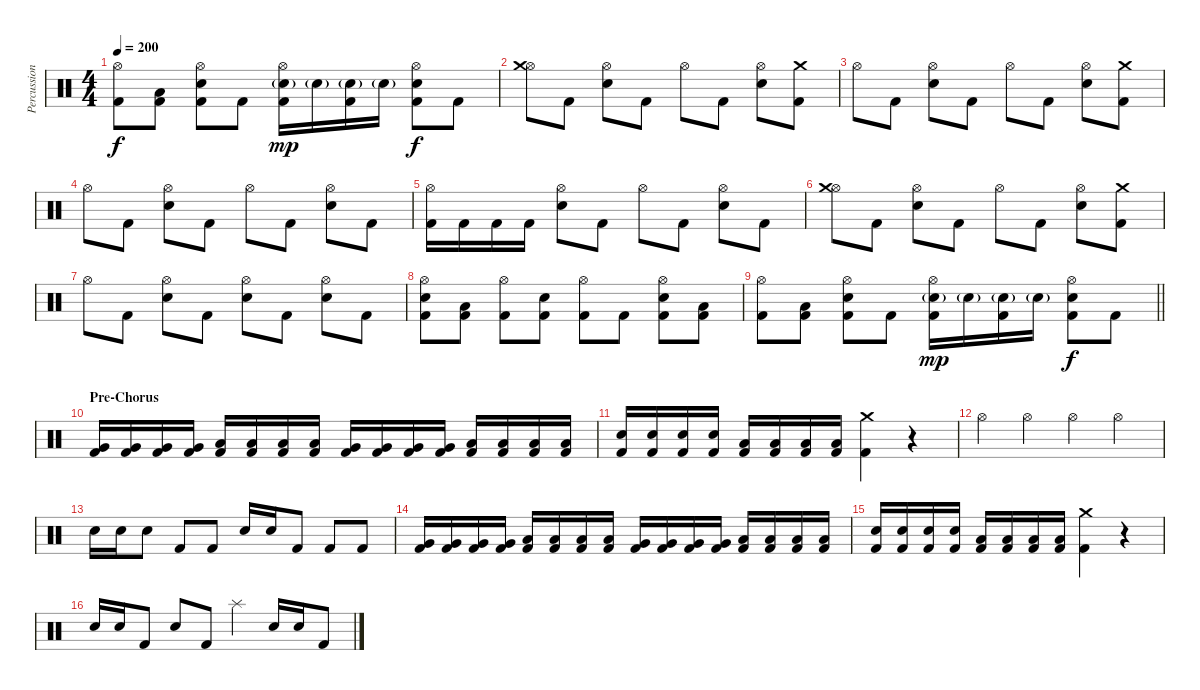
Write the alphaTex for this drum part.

\track ("Percussions" "Percussion") {instrument percussion}
\staff {score}
\articulation defaults
\ts (4 4)
\tempo 200
\clef neutral
\ks c
("Hi-Hat (open)" "Kick (hit) 2").8{dy f} ("Low Tom (hit)" "Kick (hit) 2").8 ("Hi-Hat (open)" "Electric Snare (hit)" "Kick (hit) 2").8 "Kick (hit) 2".8 ("Hi-Hat (open)" "Electric Snare (hit)"{g} "Kick (hit) 2").16{dy mp} "Electric Snare (hit)"{g}.16 ("Electric Snare (hit)"{g} "Kick (hit) 2").16 "Electric Snare (hit)"{g}.16 ("Hi-Hat (open)" "Electric Snare (hit)" "Kick (hit) 2").8{dy f} "Kick (hit) 2".8 |
("Hi-Hat (open)" "Crash medium (hit)").8 "Kick (hit) 2".8 ("Hi-Hat (open)" "Electric Snare (hit)").8 "Kick (hit) 2".8 "Hi-Hat (open)".8 "Kick (hit) 2".8 ("Hi-Hat (open)" "Electric Snare (hit)").8 ("Crash medium (hit)" "Kick (hit) 2").8 |
"Hi-Hat (open)".8 "Kick (hit) 2".8 ("Hi-Hat (open)" "Electric Snare (hit)").8 "Kick (hit) 2".8 "Hi-Hat (open)".8 "Kick (hit) 2".8 ("Hi-Hat (open)" "Electric Snare (hit)").8 ("Crash medium (hit)" "Kick (hit) 2").8 |
"Hi-Hat (open)".8 "Kick (hit) 2".8 ("Hi-Hat (open)" "Electric Snare (hit)").8 "Kick (hit) 2".8 "Hi-Hat (open)".8 "Kick (hit) 2".8 ("Hi-Hat (open)" "Electric Snare (hit)").8 "Kick (hit) 2".8 |
("Hi-Hat (open)" "Kick (hit) 2").16 "Kick (hit) 2".16 "Kick (hit) 2".16 "Kick (hit) 2".16 ("Hi-Hat (open)" "Electric Snare (hit)").8 "Kick (hit) 2".8 "Hi-Hat (open)".8 "Kick (hit) 2".8 ("Hi-Hat (open)" "Electric Snare (hit)").8 "Kick (hit) 2".8 |
("Hi-Hat (open)" "Crash medium (hit)").8 "Kick (hit) 2".8 ("Hi-Hat (open)" "Electric Snare (hit)").8 "Kick (hit) 2".8 "Hi-Hat (open)".8 "Kick (hit) 2".8 ("Hi-Hat (open)" "Electric Snare (hit)").8 ("Crash medium (hit)" "Kick (hit) 2").8 |
"Hi-Hat (open)".8 "Kick (hit) 2".8 ("Hi-Hat (open)" "Electric Snare (hit)").8 "Kick (hit) 2".8 ("Hi-Hat (open)" "Electric Snare (hit)").8 "Kick (hit) 2".8 ("Hi-Hat (open)" "Electric Snare (hit)").8 "Kick (hit) 2".8 |
("Hi-Hat (open)" "Electric Snare (hit)" "Kick (hit) 2").8 ("Low Tom (hit)" "Kick (hit) 2").8 ("Hi-Hat (open)" "Kick (hit) 2").8 ("Electric Snare (hit)" "Kick (hit) 2").8 ("Hi-Hat (open)" "Kick (hit) 2").8 "Kick (hit) 2".8 ("Hi-Hat (open)" "Electric Snare (hit)" "Kick (hit) 2").8 ("Low Tom (hit)" "Kick (hit) 2").8 |
\barLineRight lightlight
("Hi-Hat (open)" "Kick (hit) 2").8 ("Low Tom (hit)" "Kick (hit) 2").8 ("Hi-Hat (open)" "Electric Snare (hit)" "Kick (hit) 2").8 "Kick (hit) 2".8 ("Hi-Hat (open)" "Electric Snare (hit)"{g} "Kick (hit) 2").16{dy mp} "Electric Snare (hit)"{g}.16 ("Electric Snare (hit)"{g} "Kick (hit) 2").16 "Electric Snare (hit)"{g}.16 ("Hi-Hat (open)" "Electric Snare (hit)" "Kick (hit) 2").8{dy f} "Kick (hit) 2".8 |
\section ("" "Pre-Chorus")
("Very Low Tom (hit)" "Kick (hit) 2").16 ("Very Low Tom (hit)" "Kick (hit) 2").16 ("Very Low Tom (hit)" "Kick (hit) 2").16 ("Very Low Tom (hit)" "Kick (hit) 2").16 ("Low Tom (hit)" "Kick (hit) 2").16 ("Low Tom (hit)" "Kick (hit) 2").16 ("Low Tom (hit)" "Kick (hit) 2").16 ("Low Tom (hit)" "Kick (hit) 2").16 ("Very Low Tom (hit)" "Kick (hit) 2").16 ("Very Low Tom (hit)" "Kick (hit) 2").16 ("Very Low Tom (hit)" "Kick (hit) 2").16 ("Very Low Tom (hit)" "Kick (hit) 2").16 ("Low Tom (hit)" "Kick (hit) 2").16 ("Low Tom (hit)" "Kick (hit) 2").16 ("Low Tom (hit)" "Kick (hit) 2").16 ("Low Tom (hit)" "Kick (hit) 2").16 |
("Electric Snare (hit)" "Kick (hit) 2").16 ("Electric Snare (hit)" "Kick (hit) 2").16 ("Electric Snare (hit)" "Kick (hit) 2").16 ("Electric Snare (hit)" "Kick (hit) 2").16 ("Low Tom (hit)" "Kick (hit) 2").16 ("Low Tom (hit)" "Kick (hit) 2").16 ("Low Tom (hit)" "Kick (hit) 2").16 ("Low Tom (hit)" "Kick (hit) 2").16 ("Crash medium (hit)" "Kick (hit) 2").4 r.4 |
"Hi-Hat (open)".4 "Hi-Hat (open)".4 "Hi-Hat (open)".4 "Hi-Hat (open)".4 |
"Electric Snare (hit)".16 "Electric Snare (hit)".16 "Electric Snare (hit)".8 "Kick (hit) 2".8 "Kick (hit) 2".8 "Electric Snare (hit)".16 "Electric Snare (hit)".16 "Kick (hit) 2".8 "Kick (hit) 2".8 "Kick (hit) 2".8 |
("Very Low Tom (hit)" "Kick (hit) 2").16 ("Very Low Tom (hit)" "Kick (hit) 2").16 ("Very Low Tom (hit)" "Kick (hit) 2").16 ("Very Low Tom (hit)" "Kick (hit) 2").16 ("Low Tom (hit)" "Kick (hit) 2").16 ("Low Tom (hit)" "Kick (hit) 2").16 ("Low Tom (hit)" "Kick (hit) 2").16 ("Low Tom (hit)" "Kick (hit) 2").16 ("Very Low Tom (hit)" "Kick (hit) 2").16 ("Very Low Tom (hit)" "Kick (hit) 2").16 ("Very Low Tom (hit)" "Kick (hit) 2").16 ("Very Low Tom (hit)" "Kick (hit) 2").16 ("Low Tom (hit)" "Kick (hit) 2").16 ("Low Tom (hit)" "Kick (hit) 2").16 ("Low Tom (hit)" "Kick (hit) 2").16 ("Low Tom (hit)" "Kick (hit) 2").16 |
("Electric Snare (hit)" "Kick (hit) 2").16 ("Electric Snare (hit)" "Kick (hit) 2").16 ("Electric Snare (hit)" "Kick (hit) 2").16 ("Electric Snare (hit)" "Kick (hit) 2").16 ("Low Tom (hit)" "Kick (hit) 2").16 ("Low Tom (hit)" "Kick (hit) 2").16 ("Low Tom (hit)" "Kick (hit) 2").16 ("Low Tom (hit)" "Kick (hit) 2").16 ("Crash medium (hit)" "Kick (hit) 2").4 r.4 |
"Electric Snare (hit)".16 "Electric Snare (hit)".16 "Kick (hit) 2".8 "Electric Snare (hit)".8 "Kick (hit) 2".8 "Splash (hit)".4 "Electric Snare (hit)".16 "Electric Snare (hit)".16 "Kick (hit) 2".8
